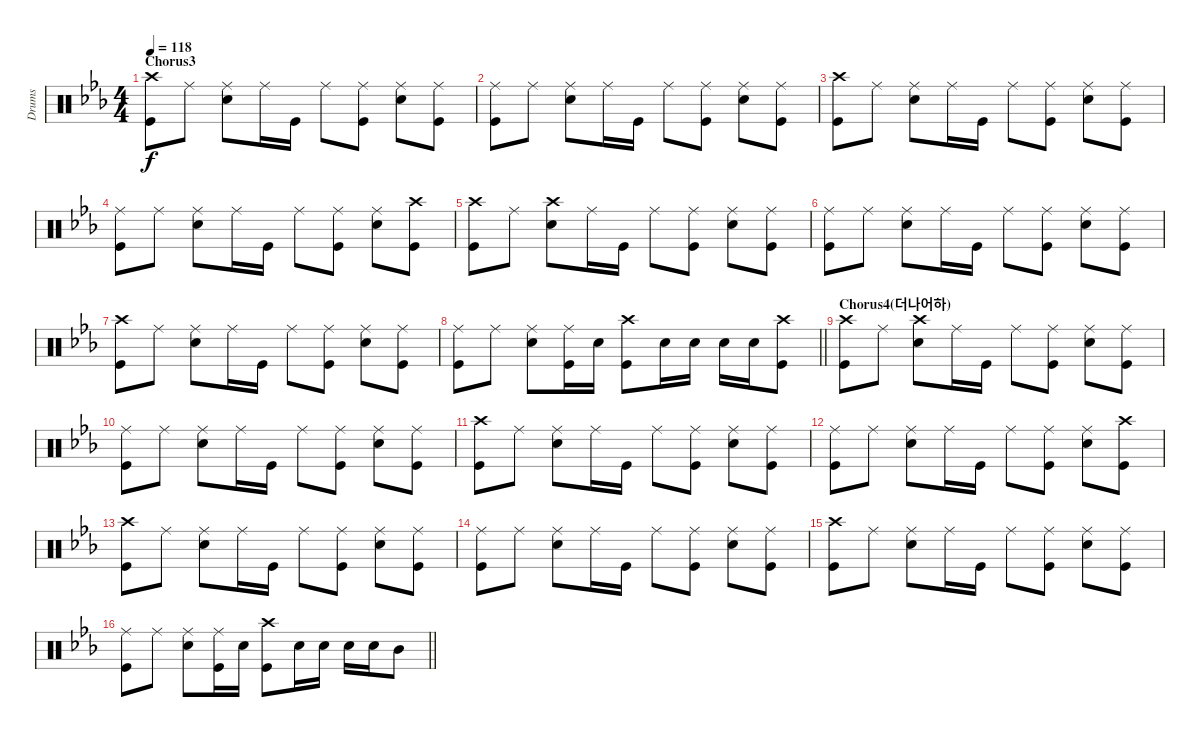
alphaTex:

\track ("Drums" "Drums") {instrument percussion}
\staff {score}
\articulation defaults
\ts (4 4)
\section ("" "Chorus3")
\tempo 118
\clef neutral
\ks cminor
("Crash high (hit)" "Kick (hit)").8{dy f} "Ride (middle)".8 ("Ride (middle)" "Snare (hit) 2").8 "Ride (middle)".16 "Kick (hit)".16 "Ride (middle)".8 ("Ride (middle)" "Kick (hit)").8 ("Ride (middle)" "Snare (hit) 2").8 ("Ride (middle)" "Kick (hit)").8 |
("Ride (middle)" "Kick (hit)").8 "Ride (middle)".8 ("Ride (middle)" "Snare (hit) 2").8 "Ride (middle)".16 "Kick (hit)".16 "Ride (middle)".8 ("Ride (middle)" "Kick (hit)").8 ("Ride (middle)" "Snare (hit) 2").8 ("Ride (middle)" "Kick (hit)").8 |
("Crash high (hit)" "Kick (hit)").8 "Ride (middle)".8 ("Ride (middle)" "Snare (hit) 2").8 "Ride (middle)".16 "Kick (hit)".16 "Ride (middle)".8 ("Ride (middle)" "Kick (hit)").8 ("Ride (middle)" "Snare (hit) 2").8 ("Ride (middle)" "Kick (hit)").8 |
("Ride (middle)" "Kick (hit)").8 "Ride (middle)".8 ("Ride (middle)" "Snare (hit) 2").8 "Ride (middle)".16 "Kick (hit)".16 "Ride (middle)".8 ("Ride (middle)" "Kick (hit)").8 ("Ride (middle)" "Snare (hit) 2").8 ("Crash high (hit)" "Kick (hit)").8 |
("Crash high (hit)" "Kick (hit)").8 "Ride (middle)".8 ("Crash high (hit)" "Snare (hit) 2").8 "Ride (middle)".16 "Kick (hit)".16 "Ride (middle)".8 ("Ride (middle)" "Kick (hit)").8 ("Ride (middle)" "Snare (hit) 2").8 ("Ride (middle)" "Kick (hit)").8 |
("Ride (middle)" "Kick (hit)").8 "Ride (middle)".8 ("Ride (middle)" "Snare (hit) 2").8 "Ride (middle)".16 "Kick (hit)".16 "Ride (middle)".8 ("Ride (middle)" "Kick (hit)").8 ("Ride (middle)" "Snare (hit) 2").8 ("Ride (middle)" "Kick (hit)").8 |
("Crash high (hit)" "Kick (hit)").8 "Ride (middle)".8 ("Ride (middle)" "Snare (hit) 2").8 "Ride (middle)".16 "Kick (hit)".16 "Ride (middle)".8 ("Ride (middle)" "Kick (hit)").8 ("Ride (middle)" "Snare (hit) 2").8 ("Ride (middle)" "Kick (hit)").8 |
\barLineRight lightlight
("Ride (middle)" "Kick (hit)").8 "Ride (middle)".8 ("Ride (middle)" "Snare (hit) 2").8 ("Ride (middle)" "Kick (hit)").16 "Snare (hit) 2".16 ("Crash high (hit)" "Kick (hit)").8 "Snare (hit) 2".16 "Snare (hit) 2".16 "Snare (hit) 2".16 "Snare (hit) 2".16 ("Crash high (hit)" "Kick (hit)").8 |
\section ("" "Chorus4(더나어하)")
("Crash high (hit)" "Kick (hit)").8 "Ride (middle)".8 ("Crash high (hit)" "Snare (hit) 2").8 "Ride (middle)".16 "Kick (hit)".16 "Ride (middle)".8 ("Ride (middle)" "Kick (hit)").8 ("Ride (middle)" "Snare (hit) 2").8 ("Ride (middle)" "Kick (hit)").8 |
("Ride (middle)" "Kick (hit)").8 "Ride (middle)".8 ("Ride (middle)" "Snare (hit) 2").8 "Ride (middle)".16 "Kick (hit)".16 "Ride (middle)".8 ("Ride (middle)" "Kick (hit)").8 ("Ride (middle)" "Snare (hit) 2").8 ("Ride (middle)" "Kick (hit)").8 |
("Crash high (hit)" "Kick (hit)").8 "Ride (middle)".8 ("Ride (middle)" "Snare (hit) 2").8 "Ride (middle)".16 "Kick (hit)".16 "Ride (middle)".8 ("Ride (middle)" "Kick (hit)").8 ("Ride (middle)" "Snare (hit) 2").8 ("Ride (middle)" "Kick (hit)").8 |
("Ride (middle)" "Kick (hit)").8 "Ride (middle)".8 ("Ride (middle)" "Snare (hit) 2").8 "Ride (middle)".16 "Kick (hit)".16 "Ride (middle)".8 ("Ride (middle)" "Kick (hit)").8 ("Ride (middle)" "Snare (hit) 2").8 ("Crash high (hit)" "Kick (hit)").8 |
("Crash high (hit)" "Kick (hit)").8 "Ride (middle)".8 ("Ride (middle)" "Snare (hit) 2").8 "Ride (middle)".16 "Kick (hit)".16 "Ride (middle)".8 ("Ride (middle)" "Kick (hit)").8 ("Ride (middle)" "Snare (hit) 2").8 ("Ride (middle)" "Kick (hit)").8 |
("Ride (middle)" "Kick (hit)").8 "Ride (middle)".8 ("Ride (middle)" "Snare (hit) 2").8 "Ride (middle)".16 "Kick (hit)".16 "Ride (middle)".8 ("Ride (middle)" "Kick (hit)").8 ("Ride (middle)" "Snare (hit) 2").8 ("Ride (middle)" "Kick (hit)").8 |
("Crash high (hit)" "Kick (hit)").8 "Ride (middle)".8 ("Ride (middle)" "Snare (hit) 2").8 "Ride (middle)".16 "Kick (hit)".16 "Ride (middle)".8 ("Ride (middle)" "Kick (hit)").8 ("Ride (middle)" "Snare (hit) 2").8 ("Ride (middle)" "Kick (hit)").8 |
\barLineRight lightlight
("Ride (middle)" "Kick (hit)").8 "Ride (middle)".8 ("Ride (middle)" "Snare (hit) 2").8 ("Ride (middle)" "Kick (hit)").16 "Snare (hit) 2".16 ("Crash high (hit)" "Kick (hit)").8 "Snare (hit) 2".16 "Snare (hit) 2".16 "Snare (hit) 2".16 "Snare (hit) 2".16 "Mid Tom (hit)".8
